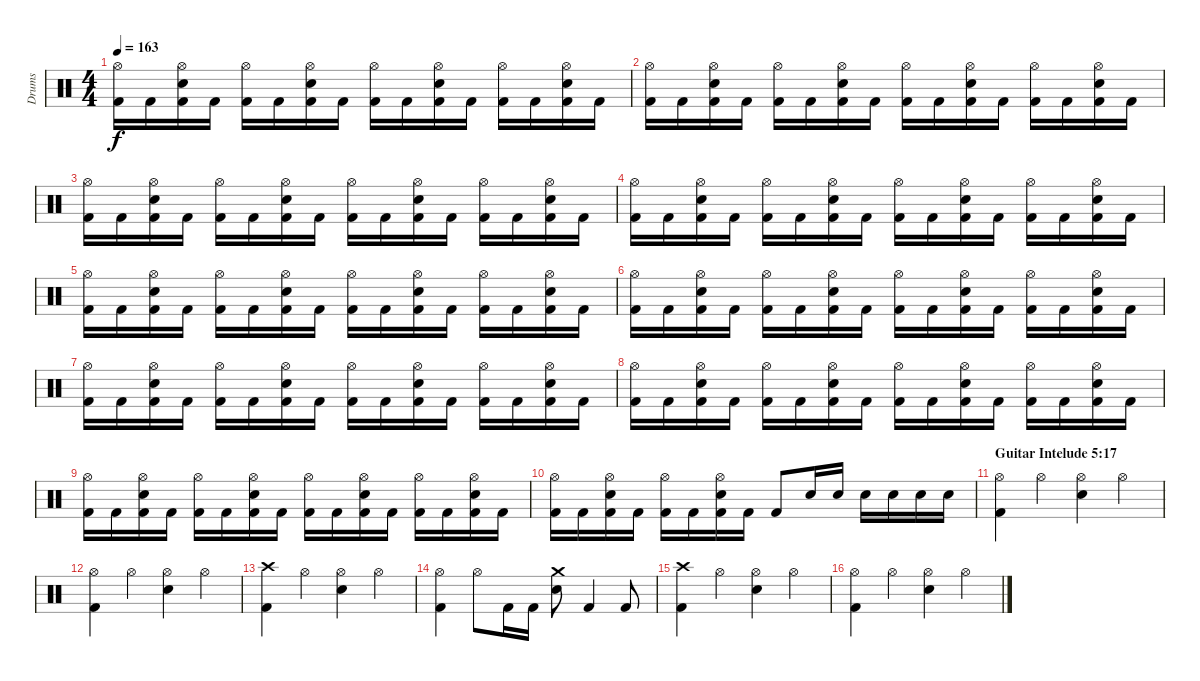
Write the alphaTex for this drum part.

\track ("Drums" "Drums") {instrument percussion}
\staff {score}
\articulation defaults
\ts (4 4)
\tempo 163
\clef neutral
\ks c
("Hi-Hat (open)" "Kick (hit) 2").16{dy f} "Kick (hit) 2".16 ("Hi-Hat (open)" "Kick (hit) 2" "Snare (hit) 2").16 "Kick (hit) 2".16 ("Hi-Hat (open)" "Kick (hit) 2").16 "Kick (hit) 2".16 ("Hi-Hat (open)" "Kick (hit) 2" "Snare (hit) 2").16 "Kick (hit) 2".16 ("Hi-Hat (open)" "Kick (hit) 2").16 "Kick (hit) 2".16 ("Hi-Hat (open)" "Kick (hit) 2" "Snare (hit) 2").16 "Kick (hit) 2".16 ("Hi-Hat (open)" "Kick (hit) 2").16 "Kick (hit) 2".16 ("Hi-Hat (open)" "Kick (hit) 2" "Snare (hit) 2").16 "Kick (hit) 2".16 |
("Hi-Hat (open)" "Kick (hit) 2").16 "Kick (hit) 2".16 ("Hi-Hat (open)" "Kick (hit) 2" "Snare (hit) 2").16 "Kick (hit) 2".16 ("Hi-Hat (open)" "Kick (hit) 2").16 "Kick (hit) 2".16 ("Hi-Hat (open)" "Kick (hit) 2" "Snare (hit) 2").16 "Kick (hit) 2".16 ("Hi-Hat (open)" "Kick (hit) 2").16 "Kick (hit) 2".16 ("Hi-Hat (open)" "Kick (hit) 2" "Snare (hit) 2").16 "Kick (hit) 2".16 ("Hi-Hat (open)" "Kick (hit) 2").16 "Kick (hit) 2".16 ("Hi-Hat (open)" "Kick (hit) 2" "Snare (hit) 2").16 "Kick (hit) 2".16 |
("Hi-Hat (open)" "Kick (hit) 2").16 "Kick (hit) 2".16 ("Hi-Hat (open)" "Kick (hit) 2" "Snare (hit) 2").16 "Kick (hit) 2".16 ("Hi-Hat (open)" "Kick (hit) 2").16 "Kick (hit) 2".16 ("Hi-Hat (open)" "Kick (hit) 2" "Snare (hit) 2").16 "Kick (hit) 2".16 ("Hi-Hat (open)" "Kick (hit) 2").16 "Kick (hit) 2".16 ("Hi-Hat (open)" "Kick (hit) 2" "Snare (hit) 2").16 "Kick (hit) 2".16 ("Hi-Hat (open)" "Kick (hit) 2").16 "Kick (hit) 2".16 ("Hi-Hat (open)" "Kick (hit) 2" "Snare (hit) 2").16 "Kick (hit) 2".16 |
("Hi-Hat (open)" "Kick (hit) 2").16 "Kick (hit) 2".16 ("Hi-Hat (open)" "Kick (hit) 2" "Snare (hit) 2").16 "Kick (hit) 2".16 ("Hi-Hat (open)" "Kick (hit) 2").16 "Kick (hit) 2".16 ("Hi-Hat (open)" "Kick (hit) 2" "Snare (hit) 2").16 "Kick (hit) 2".16 ("Hi-Hat (open)" "Kick (hit) 2").16 "Kick (hit) 2".16 ("Hi-Hat (open)" "Kick (hit) 2" "Snare (hit) 2").16 "Kick (hit) 2".16 ("Hi-Hat (open)" "Kick (hit) 2").16 "Kick (hit) 2".16 ("Hi-Hat (open)" "Kick (hit) 2" "Snare (hit) 2").16 "Kick (hit) 2".16 |
("Hi-Hat (open)" "Kick (hit) 2").16 "Kick (hit) 2".16 ("Hi-Hat (open)" "Kick (hit) 2" "Snare (hit) 2").16 "Kick (hit) 2".16 ("Hi-Hat (open)" "Kick (hit) 2").16 "Kick (hit) 2".16 ("Hi-Hat (open)" "Kick (hit) 2" "Snare (hit) 2").16 "Kick (hit) 2".16 ("Hi-Hat (open)" "Kick (hit) 2").16 "Kick (hit) 2".16 ("Hi-Hat (open)" "Kick (hit) 2" "Snare (hit) 2").16 "Kick (hit) 2".16 ("Hi-Hat (open)" "Kick (hit) 2").16 "Kick (hit) 2".16 ("Hi-Hat (open)" "Kick (hit) 2" "Snare (hit) 2").16 "Kick (hit) 2".16 |
("Hi-Hat (open)" "Kick (hit) 2").16 "Kick (hit) 2".16 ("Hi-Hat (open)" "Kick (hit) 2" "Snare (hit) 2").16 "Kick (hit) 2".16 ("Hi-Hat (open)" "Kick (hit) 2").16 "Kick (hit) 2".16 ("Hi-Hat (open)" "Kick (hit) 2" "Snare (hit) 2").16 "Kick (hit) 2".16 ("Hi-Hat (open)" "Kick (hit) 2").16 "Kick (hit) 2".16 ("Hi-Hat (open)" "Kick (hit) 2" "Snare (hit) 2").16 "Kick (hit) 2".16 ("Hi-Hat (open)" "Kick (hit) 2").16 "Kick (hit) 2".16 ("Hi-Hat (open)" "Kick (hit) 2" "Snare (hit) 2").16 "Kick (hit) 2".16 |
("Hi-Hat (open)" "Kick (hit) 2").16 "Kick (hit) 2".16 ("Hi-Hat (open)" "Kick (hit) 2" "Snare (hit) 2").16 "Kick (hit) 2".16 ("Hi-Hat (open)" "Kick (hit) 2").16 "Kick (hit) 2".16 ("Hi-Hat (open)" "Kick (hit) 2" "Snare (hit) 2").16 "Kick (hit) 2".16 ("Hi-Hat (open)" "Kick (hit) 2").16 "Kick (hit) 2".16 ("Hi-Hat (open)" "Kick (hit) 2" "Snare (hit) 2").16 "Kick (hit) 2".16 ("Hi-Hat (open)" "Kick (hit) 2").16 "Kick (hit) 2".16 ("Hi-Hat (open)" "Kick (hit) 2" "Snare (hit) 2").16 "Kick (hit) 2".16 |
("Hi-Hat (open)" "Kick (hit) 2").16 "Kick (hit) 2".16 ("Hi-Hat (open)" "Kick (hit) 2" "Snare (hit) 2").16 "Kick (hit) 2".16 ("Hi-Hat (open)" "Kick (hit) 2").16 "Kick (hit) 2".16 ("Hi-Hat (open)" "Kick (hit) 2" "Snare (hit) 2").16 "Kick (hit) 2".16 ("Hi-Hat (open)" "Kick (hit) 2").16 "Kick (hit) 2".16 ("Hi-Hat (open)" "Kick (hit) 2" "Snare (hit) 2").16 "Kick (hit) 2".16 ("Hi-Hat (open)" "Kick (hit) 2").16 "Kick (hit) 2".16 ("Hi-Hat (open)" "Kick (hit) 2" "Snare (hit) 2").16 "Kick (hit) 2".16 |
("Hi-Hat (open)" "Kick (hit) 2").16 "Kick (hit) 2".16 ("Hi-Hat (open)" "Kick (hit) 2" "Snare (hit) 2").16 "Kick (hit) 2".16 ("Hi-Hat (open)" "Kick (hit) 2").16 "Kick (hit) 2".16 ("Hi-Hat (open)" "Kick (hit) 2" "Snare (hit) 2").16 "Kick (hit) 2".16 ("Hi-Hat (open)" "Kick (hit) 2").16 "Kick (hit) 2".16 ("Hi-Hat (open)" "Kick (hit) 2" "Snare (hit) 2").16 "Kick (hit) 2".16 ("Hi-Hat (open)" "Kick (hit) 2").16 "Kick (hit) 2".16 ("Hi-Hat (open)" "Kick (hit) 2" "Snare (hit) 2").16 "Kick (hit) 2".16 |
("Hi-Hat (open)" "Kick (hit) 2").16 "Kick (hit) 2".16 ("Hi-Hat (open)" "Kick (hit) 2" "Snare (hit) 2").16 "Kick (hit) 2".16 ("Hi-Hat (open)" "Kick (hit) 2").16 "Kick (hit) 2".16 ("Hi-Hat (open)" "Kick (hit) 2" "Snare (hit) 2").16 "Kick (hit) 2".16 "Kick (hit) 2".8 "Snare (hit) 2".16 "Snare (hit) 2".16 "Snare (hit) 2".16 "Snare (hit) 2".16 "Snare (hit) 2".16 "Snare (hit) 2".16 |
\section ("" "Guitar Intelude 5:17")
("Hi-Hat (open)" "Kick (hit) 2").4 "Hi-Hat (open)".4 ("Hi-Hat (open)" "Snare (hit) 2").4 "Hi-Hat (open)".4 |
("Hi-Hat (open)" "Kick (hit) 2").4 "Hi-Hat (open)".4 ("Hi-Hat (open)" "Snare (hit) 2").4 "Hi-Hat (open)".4 |
("Kick (hit) 2" "Crash high (hit)").4 "Hi-Hat (open)".4 ("Hi-Hat (open)" "Snare (hit) 2").4 "Hi-Hat (open)".4 |
("Hi-Hat (open)" "Kick (hit) 2").4 "Hi-Hat (open)".8 "Kick (hit) 2".16 "Kick (hit) 2".16 ("Crash medium (hit)" "Snare (hit) 2").8 "Kick (hit) 2".4 "Kick (hit) 2".8 |
("Kick (hit) 2" "Crash high (hit)").4 "Hi-Hat (open)".4 ("Hi-Hat (open)" "Snare (hit) 2").4 "Hi-Hat (open)".4 |
("Hi-Hat (open)" "Kick (hit) 2").4 "Hi-Hat (open)".4 ("Hi-Hat (open)" "Snare (hit) 2").4 "Hi-Hat (open)".4
